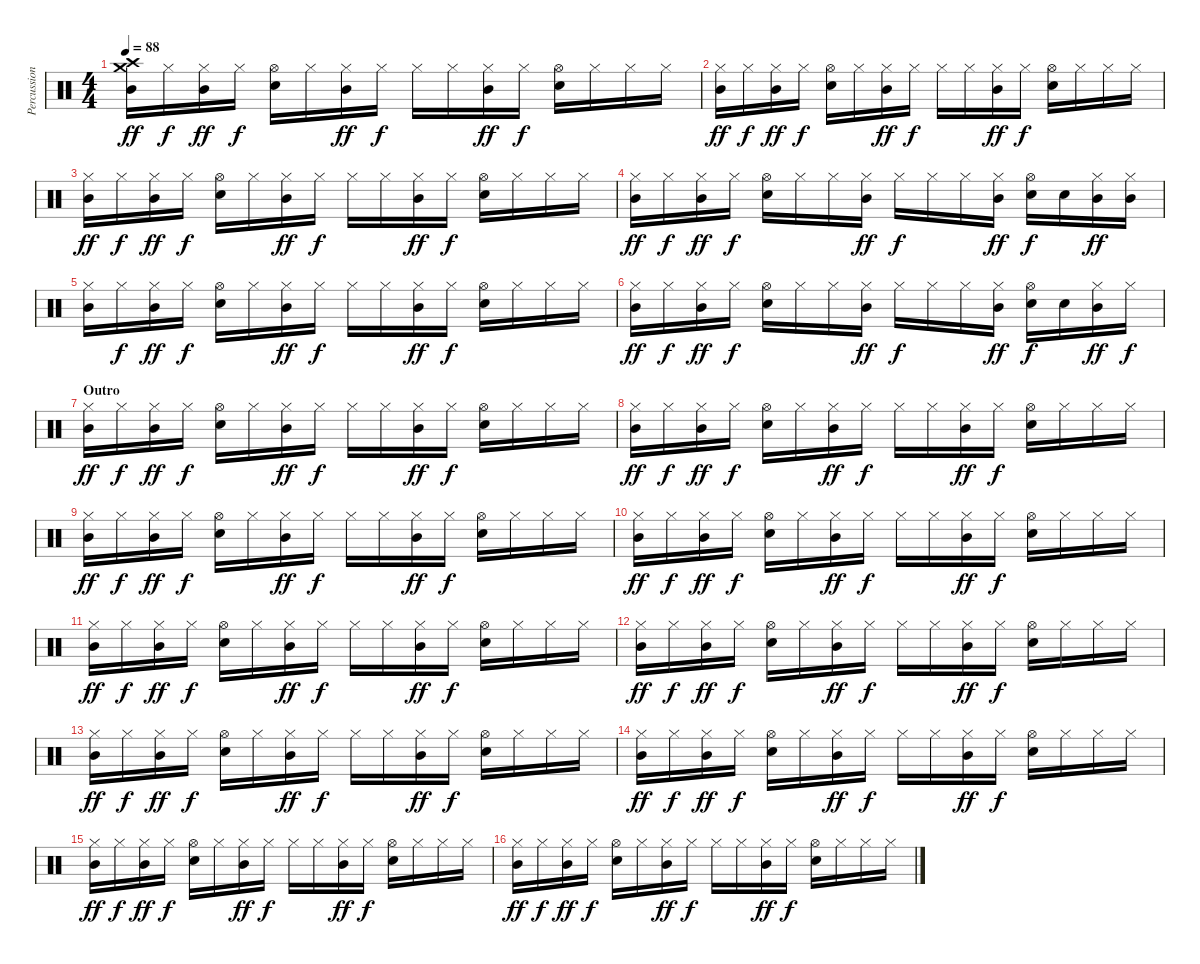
\track ("Percussion" "Percussion") {instrument percussion}
\staff {score}
\articulation defaults
\ts (4 4)
\tempo 88
\clef neutral
\ks c
("Crash medium (hit)" "Crash high (hit)" "Mid Tom (hit)").16{dy ff} "Hi-Hat (closed)".16{dy f} ("Hi-Hat (closed)" "Mid Tom (hit)").16{dy ff} "Hi-Hat (closed)".16{dy f} ("Hi-Hat (open)" "Electric Snare (hit)").16 "Hi-Hat (closed)".16 ("Hi-Hat (closed)" "Mid Tom (hit)").16{dy ff} "Hi-Hat (closed)".16{dy f} "Hi-Hat (closed)".16 "Hi-Hat (closed)".16 ("Hi-Hat (closed)" "Mid Tom (hit)").16{dy ff} "Hi-Hat (closed)".16{dy f} ("Hi-Hat (open)" "Electric Snare (hit)").16 "Hi-Hat (closed)".16 "Hi-Hat (closed)".16 "Hi-Hat (closed)".16 |
("Hi-Hat (closed)" "Mid Tom (hit)").16{dy ff} "Hi-Hat (closed)".16{dy f} ("Hi-Hat (closed)" "Mid Tom (hit)").16{dy ff} "Hi-Hat (closed)".16{dy f} ("Hi-Hat (open)" "Electric Snare (hit)").16 "Hi-Hat (closed)".16 ("Hi-Hat (closed)" "Mid Tom (hit)").16{dy ff} "Hi-Hat (closed)".16{dy f} "Hi-Hat (closed)".16 "Hi-Hat (closed)".16 ("Hi-Hat (closed)" "Mid Tom (hit)").16{dy ff} "Hi-Hat (closed)".16{dy f} ("Hi-Hat (open)" "Electric Snare (hit)").16 "Hi-Hat (closed)".16 "Hi-Hat (closed)".16 "Hi-Hat (closed)".16 |
("Hi-Hat (closed)" "Mid Tom (hit)").16{dy ff} "Hi-Hat (closed)".16{dy f} ("Hi-Hat (closed)" "Mid Tom (hit)").16{dy ff} "Hi-Hat (closed)".16{dy f} ("Hi-Hat (open)" "Electric Snare (hit)").16 "Hi-Hat (closed)".16 ("Hi-Hat (closed)" "Mid Tom (hit)").16{dy ff} "Hi-Hat (closed)".16{dy f} "Hi-Hat (closed)".16 "Hi-Hat (closed)".16 ("Hi-Hat (closed)" "Mid Tom (hit)").16{dy ff} "Hi-Hat (closed)".16{dy f} ("Hi-Hat (open)" "Electric Snare (hit)").16 "Hi-Hat (closed)".16 "Hi-Hat (closed)".16 "Hi-Hat (closed)".16 |
("Hi-Hat (closed)" "Mid Tom (hit)").16{dy ff} "Hi-Hat (closed)".16{dy f} ("Hi-Hat (closed)" "Mid Tom (hit)").16{dy ff} "Hi-Hat (closed)".16{dy f} ("Hi-Hat (open)" "Electric Snare (hit)").16 "Hi-Hat (closed)".16 "Hi-Hat (closed)".16 ("Hi-Hat (closed)" "Mid Tom (hit)").16{dy ff} "Hi-Hat (closed)".16{dy f} "Hi-Hat (closed)".16 "Hi-Hat (closed)".16 ("Hi-Hat (closed)" "Mid Tom (hit)").16{dy ff} ("Hi-Hat (open)" "Electric Snare (hit)").16{dy f} "Electric Snare (hit)".16 ("Hi-Hat (closed)" "Mid Tom (hit)").16{dy ff} ("Hi-Hat (closed)" "Mid Tom (hit)").16 |
("Hi-Hat (closed)" "Mid Tom (hit)").16 "Hi-Hat (closed)".16{dy f} ("Hi-Hat (closed)" "Mid Tom (hit)").16{dy ff} "Hi-Hat (closed)".16{dy f} ("Hi-Hat (open)" "Electric Snare (hit)").16 "Hi-Hat (closed)".16 ("Hi-Hat (closed)" "Mid Tom (hit)").16{dy ff} "Hi-Hat (closed)".16{dy f} "Hi-Hat (closed)".16 "Hi-Hat (closed)".16 ("Hi-Hat (closed)" "Mid Tom (hit)").16{dy ff} "Hi-Hat (closed)".16{dy f} ("Hi-Hat (open)" "Electric Snare (hit)").16 "Hi-Hat (closed)".16 "Hi-Hat (closed)".16 "Hi-Hat (closed)".16 |
("Hi-Hat (closed)" "Mid Tom (hit)").16{dy ff} "Hi-Hat (closed)".16{dy f} ("Hi-Hat (closed)" "Mid Tom (hit)").16{dy ff} "Hi-Hat (closed)".16{dy f} ("Hi-Hat (open)" "Electric Snare (hit)").16 "Hi-Hat (closed)".16 "Hi-Hat (closed)".16 ("Hi-Hat (closed)" "Mid Tom (hit)").16{dy ff} "Hi-Hat (closed)".16{dy f} "Hi-Hat (closed)".16 "Hi-Hat (closed)".16 ("Hi-Hat (closed)" "Mid Tom (hit)").16{dy ff} ("Hi-Hat (open)" "Electric Snare (hit)").16{dy f} "Electric Snare (hit)".16 ("Hi-Hat (closed)" "Mid Tom (hit)").16{dy ff} "Hi-Hat (closed)".16{dy f} |
\section ("" "Outro")
("Hi-Hat (closed)" "Mid Tom (hit)").16{dy ff} "Hi-Hat (closed)".16{dy f} ("Hi-Hat (closed)" "Mid Tom (hit)").16{dy ff} "Hi-Hat (closed)".16{dy f} ("Hi-Hat (open)" "Electric Snare (hit)").16 "Hi-Hat (closed)".16 ("Hi-Hat (closed)" "Mid Tom (hit)").16{dy ff} "Hi-Hat (closed)".16{dy f} "Hi-Hat (closed)".16 "Hi-Hat (closed)".16 ("Hi-Hat (closed)" "Mid Tom (hit)").16{dy ff} "Hi-Hat (closed)".16{dy f} ("Hi-Hat (open)" "Electric Snare (hit)").16 "Hi-Hat (closed)".16 "Hi-Hat (closed)".16 "Hi-Hat (closed)".16 |
("Hi-Hat (closed)" "Mid Tom (hit)").16{dy ff} "Hi-Hat (closed)".16{dy f} ("Hi-Hat (closed)" "Mid Tom (hit)").16{dy ff} "Hi-Hat (closed)".16{dy f} ("Hi-Hat (open)" "Electric Snare (hit)").16 "Hi-Hat (closed)".16 ("Hi-Hat (closed)" "Mid Tom (hit)").16{dy ff} "Hi-Hat (closed)".16{dy f} "Hi-Hat (closed)".16 "Hi-Hat (closed)".16 ("Hi-Hat (closed)" "Mid Tom (hit)").16{dy ff} "Hi-Hat (closed)".16{dy f} ("Hi-Hat (open)" "Electric Snare (hit)").16 "Hi-Hat (closed)".16 "Hi-Hat (closed)".16 "Hi-Hat (closed)".16 |
("Hi-Hat (closed)" "Mid Tom (hit)").16{dy ff} "Hi-Hat (closed)".16{dy f} ("Hi-Hat (closed)" "Mid Tom (hit)").16{dy ff} "Hi-Hat (closed)".16{dy f} ("Hi-Hat (open)" "Electric Snare (hit)").16 "Hi-Hat (closed)".16 ("Hi-Hat (closed)" "Mid Tom (hit)").16{dy ff} "Hi-Hat (closed)".16{dy f} "Hi-Hat (closed)".16 "Hi-Hat (closed)".16 ("Hi-Hat (closed)" "Mid Tom (hit)").16{dy ff} "Hi-Hat (closed)".16{dy f} ("Hi-Hat (open)" "Electric Snare (hit)").16 "Hi-Hat (closed)".16 "Hi-Hat (closed)".16 "Hi-Hat (closed)".16 |
("Hi-Hat (closed)" "Mid Tom (hit)").16{dy ff} "Hi-Hat (closed)".16{dy f} ("Hi-Hat (closed)" "Mid Tom (hit)").16{dy ff} "Hi-Hat (closed)".16{dy f} ("Hi-Hat (open)" "Electric Snare (hit)").16 "Hi-Hat (closed)".16 ("Hi-Hat (closed)" "Mid Tom (hit)").16{dy ff} "Hi-Hat (closed)".16{dy f} "Hi-Hat (closed)".16 "Hi-Hat (closed)".16 ("Hi-Hat (closed)" "Mid Tom (hit)").16{dy ff} "Hi-Hat (closed)".16{dy f} ("Hi-Hat (open)" "Electric Snare (hit)").16 "Hi-Hat (closed)".16 "Hi-Hat (closed)".16 "Hi-Hat (closed)".16 |
("Hi-Hat (closed)" "Mid Tom (hit)").16{dy ff} "Hi-Hat (closed)".16{dy f} ("Hi-Hat (closed)" "Mid Tom (hit)").16{dy ff} "Hi-Hat (closed)".16{dy f} ("Hi-Hat (open)" "Electric Snare (hit)").16 "Hi-Hat (closed)".16 ("Hi-Hat (closed)" "Mid Tom (hit)").16{dy ff} "Hi-Hat (closed)".16{dy f} "Hi-Hat (closed)".16 "Hi-Hat (closed)".16 ("Hi-Hat (closed)" "Mid Tom (hit)").16{dy ff} "Hi-Hat (closed)".16{dy f} ("Hi-Hat (open)" "Electric Snare (hit)").16 "Hi-Hat (closed)".16 "Hi-Hat (closed)".16 "Hi-Hat (closed)".16 |
("Hi-Hat (closed)" "Mid Tom (hit)").16{dy ff} "Hi-Hat (closed)".16{dy f} ("Hi-Hat (closed)" "Mid Tom (hit)").16{dy ff} "Hi-Hat (closed)".16{dy f} ("Hi-Hat (open)" "Electric Snare (hit)").16 "Hi-Hat (closed)".16 ("Hi-Hat (closed)" "Mid Tom (hit)").16{dy ff} "Hi-Hat (closed)".16{dy f} "Hi-Hat (closed)".16 "Hi-Hat (closed)".16 ("Hi-Hat (closed)" "Mid Tom (hit)").16{dy ff} "Hi-Hat (closed)".16{dy f} ("Hi-Hat (open)" "Electric Snare (hit)").16 "Hi-Hat (closed)".16 "Hi-Hat (closed)".16 "Hi-Hat (closed)".16 |
("Hi-Hat (closed)" "Mid Tom (hit)").16{dy ff volume 10} "Hi-Hat (closed)".16{dy f} ("Hi-Hat (closed)" "Mid Tom (hit)").16{dy ff} "Hi-Hat (closed)".16{dy f} ("Hi-Hat (open)" "Electric Snare (hit)").16 "Hi-Hat (closed)".16 ("Hi-Hat (closed)" "Mid Tom (hit)").16{dy ff} "Hi-Hat (closed)".16{dy f} "Hi-Hat (closed)".16 "Hi-Hat (closed)".16 ("Hi-Hat (closed)" "Mid Tom (hit)").16{dy ff} "Hi-Hat (closed)".16{dy f} ("Hi-Hat (open)" "Electric Snare (hit)").16 "Hi-Hat (closed)".16 "Hi-Hat (closed)".16 "Hi-Hat (closed)".16 |
("Hi-Hat (closed)" "Mid Tom (hit)").16{dy ff} "Hi-Hat (closed)".16{dy f} ("Hi-Hat (closed)" "Mid Tom (hit)").16{dy ff} "Hi-Hat (closed)".16{dy f} ("Hi-Hat (open)" "Electric Snare (hit)").16 "Hi-Hat (closed)".16 ("Hi-Hat (closed)" "Mid Tom (hit)").16{dy ff} "Hi-Hat (closed)".16{dy f} "Hi-Hat (closed)".16 "Hi-Hat (closed)".16 ("Hi-Hat (closed)" "Mid Tom (hit)").16{dy ff} "Hi-Hat (closed)".16{dy f} ("Hi-Hat (open)" "Electric Snare (hit)").16 "Hi-Hat (closed)".16 "Hi-Hat (closed)".16 "Hi-Hat (closed)".16 |
("Hi-Hat (closed)" "Mid Tom (hit)").16{dy ff volume 6} "Hi-Hat (closed)".16{dy f} ("Hi-Hat (closed)" "Mid Tom (hit)").16{dy ff} "Hi-Hat (closed)".16{dy f} ("Hi-Hat (open)" "Electric Snare (hit)").16 "Hi-Hat (closed)".16 ("Hi-Hat (closed)" "Mid Tom (hit)").16{dy ff} "Hi-Hat (closed)".16{dy f} "Hi-Hat (closed)".16 "Hi-Hat (closed)".16 ("Hi-Hat (closed)" "Mid Tom (hit)").16{dy ff} "Hi-Hat (closed)".16{dy f} ("Hi-Hat (open)" "Electric Snare (hit)").16 "Hi-Hat (closed)".16 "Hi-Hat (closed)".16 "Hi-Hat (closed)".16 |
("Hi-Hat (closed)" "Mid Tom (hit)").16{dy ff} "Hi-Hat (closed)".16{dy f} ("Hi-Hat (closed)" "Mid Tom (hit)").16{dy ff} "Hi-Hat (closed)".16{dy f} ("Hi-Hat (open)" "Electric Snare (hit)").16 "Hi-Hat (closed)".16 ("Hi-Hat (closed)" "Mid Tom (hit)").16{dy ff} "Hi-Hat (closed)".16{dy f} "Hi-Hat (closed)".16 "Hi-Hat (closed)".16 ("Hi-Hat (closed)" "Mid Tom (hit)").16{dy ff} "Hi-Hat (closed)".16{dy f} ("Hi-Hat (open)" "Electric Snare (hit)").16 "Hi-Hat (closed)".16 "Hi-Hat (closed)".16 "Hi-Hat (closed)".16
